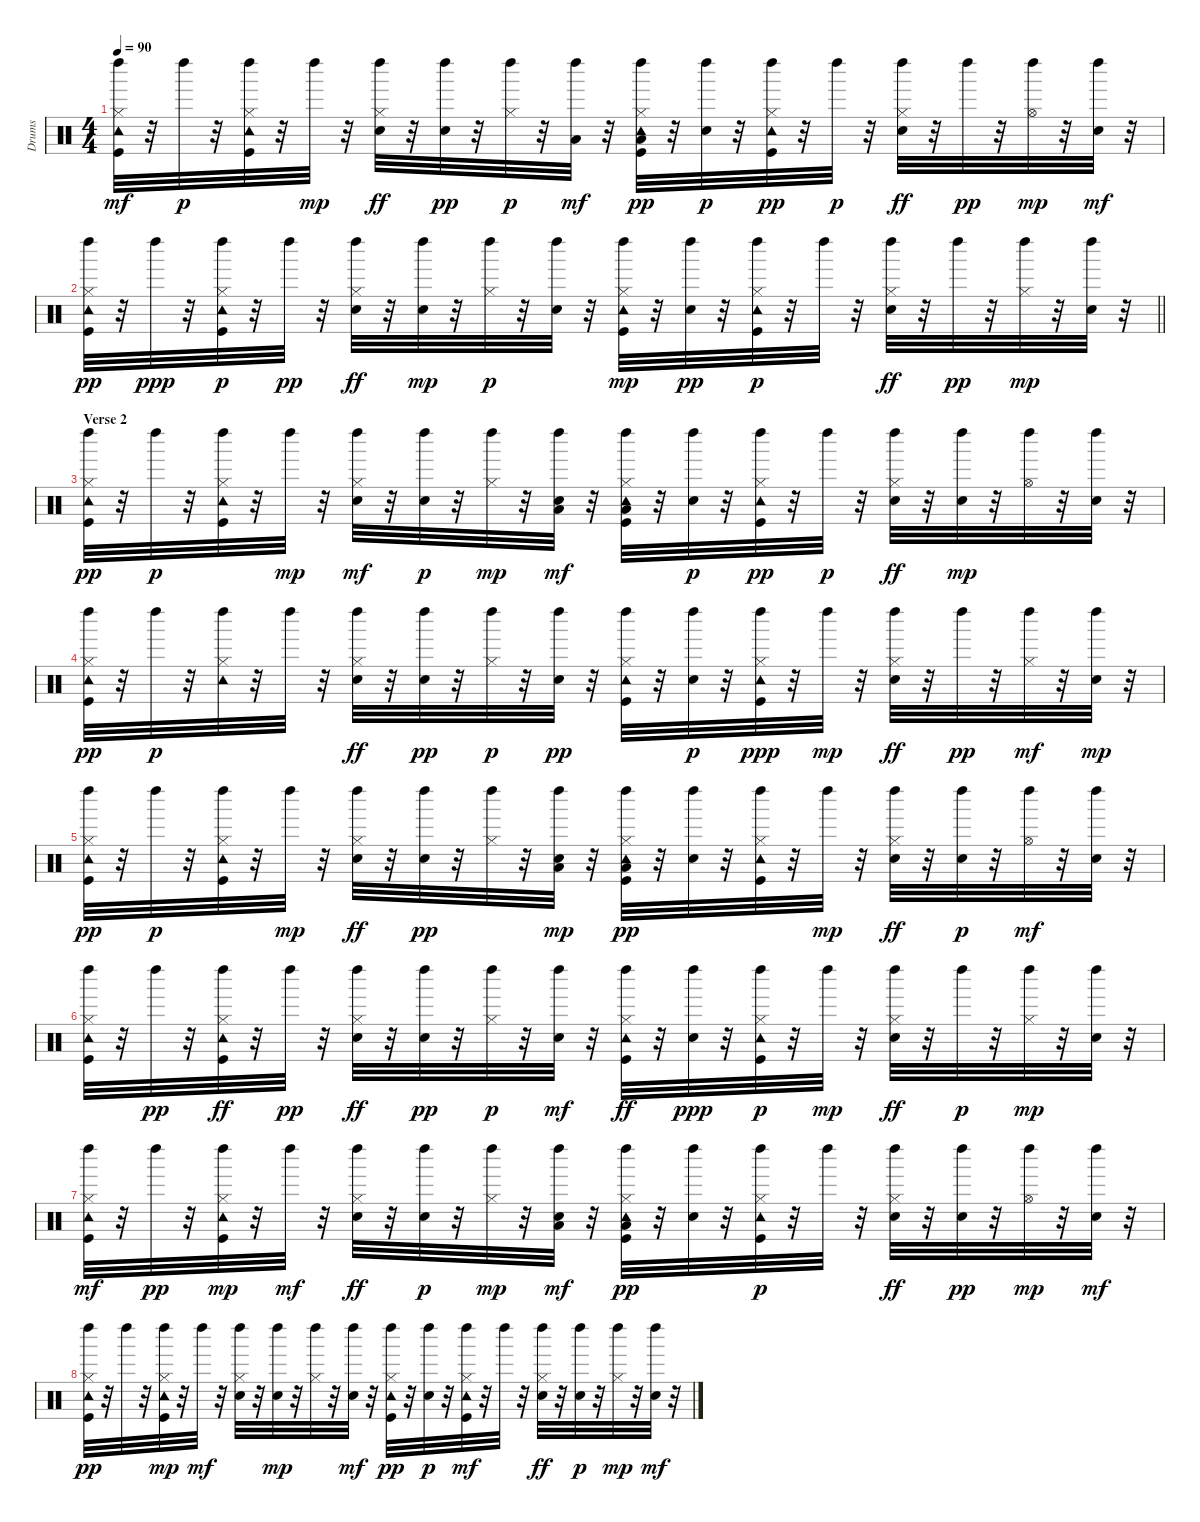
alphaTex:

\track ("Drums" "Drums") {instrument percussion}
\staff {score}
\articulation defaults
\ts (4 4)
\tempo 90
\clef neutral
\ks c
("Hi-Hat (closed)" "Kick (hit)" "Tambourine (hit)" "Left Maraca (hit)").32{dy mf} r.32 "Left Maraca (hit)".32{dy p} r.32 ("Hi-Hat (closed)" "Kick (hit)" "Tambourine (hit)" "Left Maraca (hit)").32 r.32 "Left Maraca (hit)".32{dy mp} r.32 ("Hi-Hat (closed)" "Electric Snare (hit)" "Left Maraca (hit)").32{dy ff} r.32 ("Electric Snare (hit)" "Left Maraca (hit)").32{dy pp} r.32 ("Hi-Hat (closed)" "Left Maraca (hit)").32{dy p} r.32 ("Left Maraca (hit)" "Low Tom (hit)").32{dy mf} r.32 ("Hi-Hat (closed)" "Kick (hit)" "Low Floor Tom (hit)" "Tambourine (hit)" "Left Maraca (hit)").32{dy pp} r.32 ("Electric Snare (hit)" "Left Maraca (hit)").32{dy p} r.32 ("Hi-Hat (closed)" "Kick (hit)" "Tambourine (hit)" "Left Maraca (hit)").32{dy pp} r.32 "Left Maraca (hit)".32{dy p} r.32 ("Hi-Hat (closed)" "Electric Snare (hit)" "Left Maraca (hit)").32{dy ff} r.32 "Left Maraca (hit)".32{dy pp} r.32 ("Hi-Hat (open)" "Left Maraca (hit)").32{dy mp} r.32 ("Electric Snare (hit)" "Left Maraca (hit)").32{dy mf} r.32 |
\barLineRight lightlight
("Left Maraca (hit)" "Kick (hit)" "Hi-Hat (closed)" "Tambourine (hit)").32{dy pp} r.32 "Left Maraca (hit)".32{dy ppp} r.32 ("Left Maraca (hit)" "Hi-Hat (closed)" "Kick (hit)" "Tambourine (hit)").32{dy p} r.32 "Left Maraca (hit)".32{dy pp} r.32 ("Left Maraca (hit)" "Hi-Hat (closed)" "Electric Snare (hit)").32{dy ff} r.32 ("Left Maraca (hit)" "Electric Snare (hit)").32{dy mp} r.32 ("Hi-Hat (closed)" "Left Maraca (hit)").32{dy p} r.32 ("Electric Snare (hit)" "Left Maraca (hit)").32 r.32 ("Hi-Hat (closed)" "Kick (hit)" "Tambourine (hit)" "Left Maraca (hit)").32{dy mp} r.32 ("Electric Snare (hit)" "Left Maraca (hit)").32{dy pp} r.32 ("Left Maraca (hit)" "Hi-Hat (closed)" "Kick (hit)" "Tambourine (hit)").32{dy p} r.32 "Left Maraca (hit)".32 r.32 ("Electric Snare (hit)" "Left Maraca (hit)" "Hi-Hat (closed)").32{dy ff} r.32 "Left Maraca (hit)".32{dy pp} r.32 ("Hi-Hat (closed)" "Left Maraca (hit)").32{dy mp} r.32 ("Electric Snare (hit)" "Left Maraca (hit)").32 r.32 |
\section ("" "Verse 2")
("Kick (hit)" "Left Maraca (hit)" "Hi-Hat (closed)" "Tambourine (hit)").32{dy pp} r.32 "Left Maraca (hit)".32{dy p} r.32 ("Hi-Hat (closed)" "Left Maraca (hit)" "Kick (hit)" "Tambourine (hit)").32 r.32 "Left Maraca (hit)".32{dy mp} r.32 ("Hi-Hat (closed)" "Electric Snare (hit)" "Left Maraca (hit)").32{dy mf} r.32 ("Electric Snare (hit)" "Left Maraca (hit)").32{dy p} r.32 ("Hi-Hat (closed)" "Left Maraca (hit)").32{dy mp} r.32 ("Electric Snare (hit)" "Left Maraca (hit)" "Low Tom (hit)").32{dy mf} r.32 ("Hi-Hat (closed)" "Tambourine (hit)" "Kick (hit)" "Low Floor Tom (hit)" "Left Maraca (hit)").32 r.32 ("Electric Snare (hit)" "Left Maraca (hit)").32{dy p} r.32 ("Hi-Hat (closed)" "Tambourine (hit)" "Left Maraca (hit)" "Kick (hit)").32{dy pp} r.32 "Left Maraca (hit)".32{dy p} r.32 ("Left Maraca (hit)" "Hi-Hat (closed)" "Electric Snare (hit)").32{dy ff} r.32 ("Left Maraca (hit)" "Electric Snare (hit)").32{dy mp} r.32 ("Hi-Hat (open)" "Left Maraca (hit)").32 r.32 ("Left Maraca (hit)" "Electric Snare (hit)").32 r.32 |
("Left Maraca (hit)" "Kick (hit)" "Hi-Hat (closed)" "Tambourine (hit)").32{dy pp} r.32 "Left Maraca (hit)".32{dy p} r.32 ("Hi-Hat (closed)" "Left Maraca (hit)" "Tambourine (hit)").32 r.32 "Left Maraca (hit)".32 r.32 ("Hi-Hat (closed)" "Left Maraca (hit)" "Electric Snare (hit)").32{dy ff} r.32 ("Electric Snare (hit)" "Left Maraca (hit)").32{dy pp} r.32 ("Hi-Hat (closed)" "Left Maraca (hit)").32{dy p} r.32 ("Electric Snare (hit)" "Left Maraca (hit)").32{dy pp} r.32 ("Hi-Hat (closed)" "Kick (hit)" "Tambourine (hit)" "Left Maraca (hit)").32 r.32 ("Electric Snare (hit)" "Left Maraca (hit)").32{dy p} r.32 ("Tambourine (hit)" "Kick (hit)" "Hi-Hat (closed)" "Left Maraca (hit)").32{dy ppp} r.32 "Left Maraca (hit)".32{dy mp} r.32 ("Left Maraca (hit)" "Hi-Hat (closed)" "Electric Snare (hit)").32{dy ff} r.32 "Left Maraca (hit)".32{dy pp} r.32 ("Left Maraca (hit)" "Hi-Hat (closed)").32{dy mf} r.32 ("Left Maraca (hit)" "Electric Snare (hit)").32{dy mp} r.32 |
("Left Maraca (hit)" "Hi-Hat (closed)" "Kick (hit)" "Tambourine (hit)").32{dy pp} r.32 "Left Maraca (hit)".32{dy p} r.32 ("Kick (hit)" "Left Maraca (hit)" "Hi-Hat (closed)" "Tambourine (hit)").32 r.32 "Left Maraca (hit)".32{dy mp} r.32 ("Electric Snare (hit)" "Left Maraca (hit)" "Hi-Hat (closed)").32{dy ff} r.32 ("Electric Snare (hit)" "Left Maraca (hit)").32{dy pp} r.32 ("Hi-Hat (closed)" "Left Maraca (hit)").32 r.32 ("Electric Snare (hit)" "Left Maraca (hit)" "Low Tom (hit)").32{dy mp} r.32 ("Kick (hit)" "Low Floor Tom (hit)" "Left Maraca (hit)" "Hi-Hat (closed)" "Tambourine (hit)").32{dy pp} r.32 ("Electric Snare (hit)" "Left Maraca (hit)").32 r.32 ("Hi-Hat (closed)" "Kick (hit)" "Tambourine (hit)" "Left Maraca (hit)").32 r.32 "Left Maraca (hit)".32{dy mp} r.32 ("Electric Snare (hit)" "Hi-Hat (closed)" "Left Maraca (hit)").32{dy ff} r.32 ("Electric Snare (hit)" "Left Maraca (hit)").32{dy p} r.32 ("Hi-Hat (open)" "Left Maraca (hit)").32{dy mf} r.32 ("Electric Snare (hit)" "Left Maraca (hit)").32 r.32 |
("Hi-Hat (closed)" "Kick (hit)" "Tambourine (hit)" "Left Maraca (hit)").32 r.32 "Left Maraca (hit)".32{dy pp} r.32 ("Hi-Hat (closed)" "Tambourine (hit)" "Left Maraca (hit)" "Kick (hit)").32{dy ff} r.32 "Left Maraca (hit)".32{dy pp} r.32 ("Electric Snare (hit)" "Left Maraca (hit)" "Hi-Hat (closed)").32{dy ff} r.32 ("Electric Snare (hit)" "Left Maraca (hit)").32{dy pp} r.32 ("Hi-Hat (closed)" "Left Maraca (hit)").32{dy p} r.32 ("Electric Snare (hit)" "Left Maraca (hit)").32{dy mf} r.32 ("Hi-Hat (closed)" "Tambourine (hit)" "Kick (hit)" "Left Maraca (hit)").32{dy ff} r.32 ("Electric Snare (hit)" "Left Maraca (hit)").32{dy ppp} r.32 ("Hi-Hat (closed)" "Kick (hit)" "Tambourine (hit)" "Left Maraca (hit)").32{dy p} r.32 "Left Maraca (hit)".32{dy mp} r.32 ("Electric Snare (hit)" "Hi-Hat (closed)" "Left Maraca (hit)").32{dy ff} r.32 "Left Maraca (hit)".32{dy p} r.32 ("Hi-Hat (closed)" "Left Maraca (hit)").32{dy mp} r.32 ("Left Maraca (hit)" "Electric Snare (hit)").32 r.32 |
("Hi-Hat (closed)" "Kick (hit)" "Tambourine (hit)" "Left Maraca (hit)").32{dy mf} r.32 "Left Maraca (hit)".32{dy pp} r.32 ("Kick (hit)" "Hi-Hat (closed)" "Tambourine (hit)" "Left Maraca (hit)").32{dy mp} r.32 "Left Maraca (hit)".32{dy mf} r.32 ("Left Maraca (hit)" "Hi-Hat (closed)" "Electric Snare (hit)").32{dy ff} r.32 ("Electric Snare (hit)" "Left Maraca (hit)").32{dy p} r.32 ("Left Maraca (hit)" "Hi-Hat (closed)").32{dy mp} r.32 ("Electric Snare (hit)" "Left Maraca (hit)" "Low Tom (hit)").32{dy mf} r.32 ("Hi-Hat (closed)" "Left Maraca (hit)" "Kick (hit)" "Low Floor Tom (hit)" "Tambourine (hit)").32{dy pp} r.32 ("Electric Snare (hit)" "Left Maraca (hit)").32 r.32 ("Hi-Hat (closed)" "Kick (hit)" "Left Maraca (hit)" "Tambourine (hit)").32{dy p} r.32 "Left Maraca (hit)".32 r.32 ("Electric Snare (hit)" "Left Maraca (hit)" "Hi-Hat (closed)").32{dy ff} r.32 ("Electric Snare (hit)" "Left Maraca (hit)").32{dy pp} r.32 ("Hi-Hat (open)" "Left Maraca (hit)").32{dy mp} r.32 ("Electric Snare (hit)" "Left Maraca (hit)").32{dy mf} r.32 |
("Hi-Hat (closed)" "Left Maraca (hit)" "Kick (hit)" "Tambourine (hit)").32{dy pp} r.32 "Left Maraca (hit)".32 r.32 ("Hi-Hat (closed)" "Kick (hit)" "Tambourine (hit)" "Left Maraca (hit)").32{dy mp} r.32 "Left Maraca (hit)".32{dy mf} r.32 ("Electric Snare (hit)" "Hi-Hat (closed)" "Left Maraca (hit)").32 r.32 ("Electric Snare (hit)" "Left Maraca (hit)").32{dy mp} r.32 ("Hi-Hat (closed)" "Left Maraca (hit)").32 r.32 ("Electric Snare (hit)" "Left Maraca (hit)").32{dy mf} r.32 ("Kick (hit)" "Hi-Hat (closed)" "Tambourine (hit)" "Left Maraca (hit)").32{dy pp} r.32 ("Electric Snare (hit)" "Left Maraca (hit)").32{dy p} r.32 ("Hi-Hat (closed)" "Kick (hit)" "Tambourine (hit)" "Left Maraca (hit)").32{dy mf} r.32 "Left Maraca (hit)".32 r.32 ("Electric Snare (hit)" "Hi-Hat (closed)" "Left Maraca (hit)").32{dy ff} r.32 ("Electric Snare (hit)" "Left Maraca (hit)").32{dy p} r.32 ("Hi-Hat (closed)" "Left Maraca (hit)").32{dy mp} r.32 ("Electric Snare (hit)" "Left Maraca (hit)").32{dy mf} r.32
